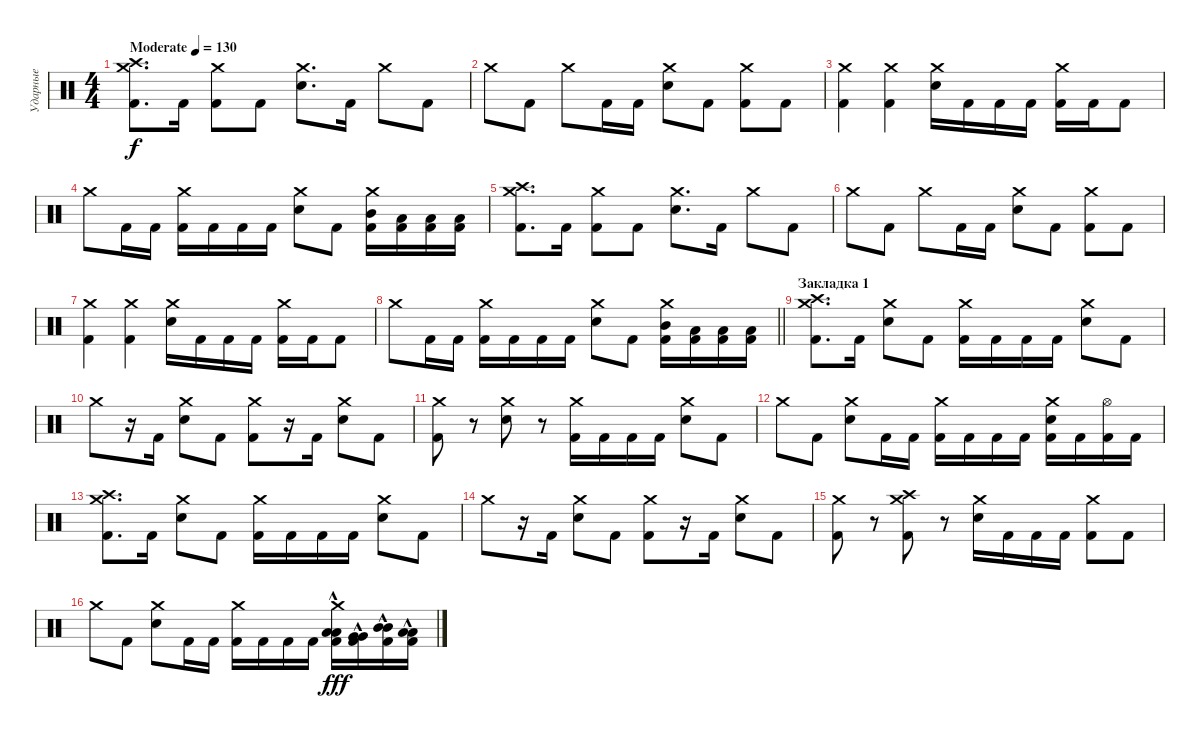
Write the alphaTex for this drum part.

\track ("Ударные" "Ударные") {instrument percussion}
\staff {score}
\articulation defaults
\ts (4 4)
\tempo (130 "Moderate")
\clef neutral
\ks c
("Crash medium (hit)" "Crash high (hit)" "Kick (hit) 2").8{d dy f} "Kick (hit) 2".16 ("Crash medium (hit)" "Kick (hit) 2").8 "Kick (hit) 2".8 ("Crash medium (hit)" "Electric Snare (hit)").8{d} "Kick (hit) 2".16 "Crash medium (hit)".8 "Kick (hit) 2".8 |
"Crash medium (hit)".8 "Kick (hit) 2".8 "Crash medium (hit)".8 "Kick (hit) 2".16 "Kick (hit) 2".16 ("Crash medium (hit)" "Electric Snare (hit)").8 "Kick (hit) 2".8 ("Crash medium (hit)" "Kick (hit) 2").8 "Kick (hit) 2".8 |
("Crash medium (hit)" "Kick (hit) 2").4 ("Crash medium (hit)" "Kick (hit) 2").4 ("Crash medium (hit)" "Electric Snare (hit)").16 "Kick (hit) 2".16 "Kick (hit) 2".16 "Kick (hit) 2".16 ("Crash medium (hit)" "Kick (hit) 2").16 "Kick (hit) 2".16 "Kick (hit) 2".8 |
"Crash medium (hit)".8 "Kick (hit) 2".16 "Kick (hit) 2".16 ("Crash medium (hit)" "Kick (hit) 2").16 "Kick (hit) 2".16 "Kick (hit) 2".16 "Kick (hit) 2".16 ("Crash medium (hit)" "Electric Snare (hit)").8 "Kick (hit) 2".8 ("Crash medium (hit)" "Mid Tom (hit)" "Kick (hit) 2").16 ("Low Floor Tom (hit)" "Kick (hit) 2").16 ("Low Tom (hit)" "Kick (hit) 2").16 ("Low Floor Tom (hit)" "Kick (hit) 2").16 |
("Crash medium (hit)" "Crash high (hit)" "Kick (hit) 2").8{d} "Kick (hit) 2".16 ("Crash medium (hit)" "Kick (hit) 2").8 "Kick (hit) 2".8 ("Crash medium (hit)" "Electric Snare (hit)").8{d} "Kick (hit) 2".16 "Crash medium (hit)".8 "Kick (hit) 2".8 |
"Crash medium (hit)".8 "Kick (hit) 2".8 "Crash medium (hit)".8 "Kick (hit) 2".16 "Kick (hit) 2".16 ("Crash medium (hit)" "Electric Snare (hit)").8 "Kick (hit) 2".8 ("Crash medium (hit)" "Kick (hit) 2").8 "Kick (hit) 2".8 |
("Crash medium (hit)" "Kick (hit) 2").4 ("Crash medium (hit)" "Kick (hit) 2").4 ("Crash medium (hit)" "Electric Snare (hit)").16 "Kick (hit) 2".16 "Kick (hit) 2".16 "Kick (hit) 2".16 ("Crash medium (hit)" "Kick (hit) 2").16 "Kick (hit) 2".16 "Kick (hit) 2".8 |
\barLineRight lightlight "Crash medium (hit)".8 "Kick (hit) 2".16 "Kick (hit) 2".16
("Crash medium (hit)" "Kick (hit) 2").16 "Kick (hit) 2".16 "Kick (hit) 2".16 "Kick (hit) 2".16 ("Crash medium (hit)" "Electric Snare (hit)").8 "Kick (hit) 2".8 ("Crash medium (hit)" "Mid Tom (hit)" "Kick (hit) 2").16 ("Low Floor Tom (hit)" "Kick (hit) 2").16 ("Low Tom (hit)" "Kick (hit) 2").16 ("Low Floor Tom (hit)" "Kick (hit) 2").16 |
\section ("" "Закладка 1")
("Crash medium (hit)" "Crash high (hit)" "Kick (hit) 2").8{d} "Kick (hit) 2".16 ("Crash medium (hit)" "Electric Snare (hit)").8 "Kick (hit) 2".8 ("Crash medium (hit)" "Kick (hit) 2").16 "Kick (hit) 2".16 "Kick (hit) 2".16 "Kick (hit) 2".16 ("Crash medium (hit)" "Electric Snare (hit)").8 "Kick (hit) 2".8 |
"Crash medium (hit)".8 r.16 "Kick (hit) 2".16 ("Crash medium (hit)" "Electric Snare (hit)").8 "Kick (hit) 2".8 ("Crash medium (hit)" "Kick (hit) 2").8 r.16 "Kick (hit) 2".16 ("Crash medium (hit)" "Electric Snare (hit)").8 "Kick (hit) 2".8 |
("Crash medium (hit)" "Kick (hit) 2").8 r.8 ("Crash medium (hit)" "Electric Snare (hit)").8 r.8 ("Crash medium (hit)" "Kick (hit) 2").16 "Kick (hit) 2".16 "Kick (hit) 2".16 "Kick (hit) 2".16 ("Crash medium (hit)" "Electric Snare (hit)").8 "Kick (hit) 2".8 |
"Crash medium (hit)".8 "Kick (hit) 2".8 ("Crash medium (hit)" "Electric Snare (hit)").8 "Kick (hit) 2".16 "Kick (hit) 2".16 ("Crash medium (hit)" "Kick (hit) 2").16 "Kick (hit) 2".16 "Kick (hit) 2".16 "Kick (hit) 2".16 ("Crash medium (hit)" "Electric Snare (hit)" "Kick (hit) 2").16 "Kick (hit) 2".16 ("Hi-Hat (open)" "Kick (hit) 2").16 "Kick (hit) 2".16 |
("Crash medium (hit)" "Crash high (hit)" "Kick (hit) 2").8{d} "Kick (hit) 2".16 ("Crash medium (hit)" "Electric Snare (hit)").8 "Kick (hit) 2".8 ("Crash medium (hit)" "Kick (hit) 2").16 "Kick (hit) 2".16 "Kick (hit) 2".16 "Kick (hit) 2".16 ("Crash medium (hit)" "Electric Snare (hit)").8 "Kick (hit) 2".8 |
"Crash medium (hit)".8 r.16 "Kick (hit) 2".16 ("Crash medium (hit)" "Electric Snare (hit)").8 "Kick (hit) 2".8 ("Crash medium (hit)" "Kick (hit) 2").8 r.16 "Kick (hit) 2".16 ("Crash medium (hit)" "Electric Snare (hit)").8 "Kick (hit) 2".8 |
("Crash medium (hit)" "Kick (hit) 2").8 r.8 ("Crash medium (hit)" "Crash high (hit)" "Kick (hit) 2").8 r.8 ("Crash medium (hit)" "Electric Snare (hit)").16 "Kick (hit) 2".16 "Kick (hit) 2".16 "Kick (hit) 2".16 ("Crash medium (hit)" "Kick (hit) 2").8 "Kick (hit) 2".8 |
"Crash medium (hit)".8 "Kick (hit) 2".8 ("Crash medium (hit)" "Electric Snare (hit)").8 "Kick (hit) 2".16 "Kick (hit) 2".16 ("Crash medium (hit)" "Kick (hit) 2").16 "Kick (hit) 2".16 "Kick (hit) 2".16 "Kick (hit) 2".16 ("Crash medium (hit)" "Low Tom (hit)" "Low Tom (hit)"{hac} "Kick (hit) 2"{hac}).16{dy fff} ("Very Low Tom (hit)" "Very Low Tom (hit)"{hac} "Kick (hit) 2"{hac}).16 ("Mid Tom (hit)"{hac} "Mid Tom (hit)"{hac} "Kick (hit) 2"{hac}).16 ("Low Floor Tom (hit)"{hac} "Low Floor Tom (hit)"{hac} "Kick (hit) 2"{hac}).16
